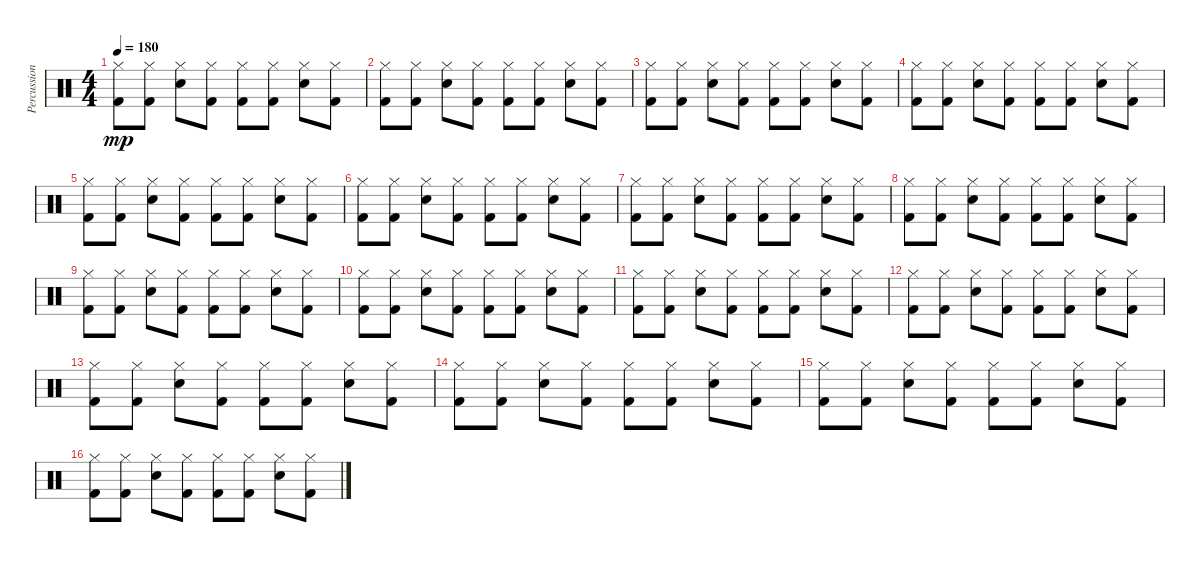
\track ("Percussion" "Percussion") {instrument percussion}
\staff {score}
\articulation defaults
\ts (4 4)
\tempo 180
\clef neutral
\ks c
("Hi-Hat (closed)" "Kick (hit) 2").8{dy mp} ("Hi-Hat (closed)" "Kick (hit) 2").8 ("Hi-Hat (closed)" "Snare (hit) 2").8 ("Hi-Hat (closed)" "Kick (hit) 2").8 ("Hi-Hat (closed)" "Kick (hit) 2").8 ("Hi-Hat (closed)" "Kick (hit) 2").8 ("Hi-Hat (closed)" "Snare (hit) 2").8 ("Hi-Hat (closed)" "Kick (hit) 2").8 |
("Hi-Hat (closed)" "Kick (hit) 2").8 ("Hi-Hat (closed)" "Kick (hit) 2").8 ("Hi-Hat (closed)" "Snare (hit) 2").8 ("Hi-Hat (closed)" "Kick (hit) 2").8 ("Hi-Hat (closed)" "Kick (hit) 2").8 ("Hi-Hat (closed)" "Kick (hit) 2").8 ("Hi-Hat (closed)" "Snare (hit) 2").8 ("Hi-Hat (closed)" "Kick (hit) 2").8 |
("Hi-Hat (closed)" "Kick (hit) 2").8 ("Hi-Hat (closed)" "Kick (hit) 2").8 ("Hi-Hat (closed)" "Snare (hit) 2").8 ("Hi-Hat (closed)" "Kick (hit) 2").8 ("Hi-Hat (closed)" "Kick (hit) 2").8 ("Hi-Hat (closed)" "Kick (hit) 2").8 ("Hi-Hat (closed)" "Snare (hit) 2").8 ("Hi-Hat (closed)" "Kick (hit) 2").8 |
("Hi-Hat (closed)" "Kick (hit) 2").8 ("Hi-Hat (closed)" "Kick (hit) 2").8 ("Hi-Hat (closed)" "Snare (hit) 2").8 ("Hi-Hat (closed)" "Kick (hit) 2").8 ("Hi-Hat (closed)" "Kick (hit) 2").8 ("Hi-Hat (closed)" "Kick (hit) 2").8 ("Hi-Hat (closed)" "Snare (hit) 2").8 ("Hi-Hat (closed)" "Kick (hit) 2").8 |
("Hi-Hat (closed)" "Kick (hit) 2").8 ("Hi-Hat (closed)" "Kick (hit) 2").8 ("Hi-Hat (closed)" "Snare (hit) 2").8 ("Hi-Hat (closed)" "Kick (hit) 2").8 ("Hi-Hat (closed)" "Kick (hit) 2").8 ("Hi-Hat (closed)" "Kick (hit) 2").8 ("Hi-Hat (closed)" "Snare (hit) 2").8 ("Hi-Hat (closed)" "Kick (hit) 2").8 |
("Hi-Hat (closed)" "Kick (hit) 2").8 ("Hi-Hat (closed)" "Kick (hit) 2").8 ("Hi-Hat (closed)" "Snare (hit) 2").8 ("Hi-Hat (closed)" "Kick (hit) 2").8 ("Hi-Hat (closed)" "Kick (hit) 2").8 ("Hi-Hat (closed)" "Kick (hit) 2").8 ("Hi-Hat (closed)" "Snare (hit) 2").8 ("Hi-Hat (closed)" "Kick (hit) 2").8 |
("Hi-Hat (closed)" "Kick (hit) 2").8 ("Hi-Hat (closed)" "Kick (hit) 2").8 ("Hi-Hat (closed)" "Snare (hit) 2").8 ("Hi-Hat (closed)" "Kick (hit) 2").8 ("Hi-Hat (closed)" "Kick (hit) 2").8 ("Hi-Hat (closed)" "Kick (hit) 2").8 ("Hi-Hat (closed)" "Snare (hit) 2").8 ("Hi-Hat (closed)" "Kick (hit) 2").8 |
("Hi-Hat (closed)" "Kick (hit) 2").8 ("Hi-Hat (closed)" "Kick (hit) 2").8 ("Hi-Hat (closed)" "Snare (hit) 2").8 ("Hi-Hat (closed)" "Kick (hit) 2").8 ("Hi-Hat (closed)" "Kick (hit) 2").8 ("Hi-Hat (closed)" "Kick (hit) 2").8 ("Hi-Hat (closed)" "Snare (hit) 2").8 ("Hi-Hat (closed)" "Kick (hit) 2").8 |
("Hi-Hat (closed)" "Kick (hit) 2").8 ("Hi-Hat (closed)" "Kick (hit) 2").8 ("Hi-Hat (closed)" "Snare (hit) 2").8 ("Hi-Hat (closed)" "Kick (hit) 2").8 ("Hi-Hat (closed)" "Kick (hit) 2").8 ("Hi-Hat (closed)" "Kick (hit) 2").8 ("Hi-Hat (closed)" "Snare (hit) 2").8 ("Hi-Hat (closed)" "Kick (hit) 2").8 |
("Hi-Hat (closed)" "Kick (hit) 2").8 ("Hi-Hat (closed)" "Kick (hit) 2").8 ("Hi-Hat (closed)" "Snare (hit) 2").8 ("Hi-Hat (closed)" "Kick (hit) 2").8 ("Hi-Hat (closed)" "Kick (hit) 2").8 ("Hi-Hat (closed)" "Kick (hit) 2").8 ("Hi-Hat (closed)" "Snare (hit) 2").8 ("Hi-Hat (closed)" "Kick (hit) 2").8 |
("Hi-Hat (closed)" "Kick (hit) 2").8 ("Hi-Hat (closed)" "Kick (hit) 2").8 ("Hi-Hat (closed)" "Snare (hit) 2").8 ("Hi-Hat (closed)" "Kick (hit) 2").8 ("Hi-Hat (closed)" "Kick (hit) 2").8 ("Hi-Hat (closed)" "Kick (hit) 2").8 ("Hi-Hat (closed)" "Snare (hit) 2").8 ("Hi-Hat (closed)" "Kick (hit) 2").8 |
("Hi-Hat (closed)" "Kick (hit) 2").8 ("Hi-Hat (closed)" "Kick (hit) 2").8 ("Hi-Hat (closed)" "Snare (hit) 2").8 ("Hi-Hat (closed)" "Kick (hit) 2").8 ("Hi-Hat (closed)" "Kick (hit) 2").8 ("Hi-Hat (closed)" "Kick (hit) 2").8 ("Hi-Hat (closed)" "Snare (hit) 2").8 ("Hi-Hat (closed)" "Kick (hit) 2").8 |
("Hi-Hat (closed)" "Kick (hit) 2").8 ("Hi-Hat (closed)" "Kick (hit) 2").8 ("Hi-Hat (closed)" "Snare (hit) 2").8 ("Hi-Hat (closed)" "Kick (hit) 2").8 ("Hi-Hat (closed)" "Kick (hit) 2").8 ("Hi-Hat (closed)" "Kick (hit) 2").8 ("Hi-Hat (closed)" "Snare (hit) 2").8 ("Hi-Hat (closed)" "Kick (hit) 2").8 |
("Hi-Hat (closed)" "Kick (hit) 2").8 ("Hi-Hat (closed)" "Kick (hit) 2").8 ("Hi-Hat (closed)" "Snare (hit) 2").8 ("Hi-Hat (closed)" "Kick (hit) 2").8 ("Hi-Hat (closed)" "Kick (hit) 2").8 ("Hi-Hat (closed)" "Kick (hit) 2").8 ("Hi-Hat (closed)" "Snare (hit) 2").8 ("Hi-Hat (closed)" "Kick (hit) 2").8 |
("Hi-Hat (closed)" "Kick (hit) 2").8 ("Hi-Hat (closed)" "Kick (hit) 2").8 ("Hi-Hat (closed)" "Snare (hit) 2").8 ("Hi-Hat (closed)" "Kick (hit) 2").8 ("Hi-Hat (closed)" "Kick (hit) 2").8 ("Hi-Hat (closed)" "Kick (hit) 2").8 ("Hi-Hat (closed)" "Snare (hit) 2").8 ("Hi-Hat (closed)" "Kick (hit) 2").8 |
("Hi-Hat (closed)" "Kick (hit) 2").8 ("Hi-Hat (closed)" "Kick (hit) 2").8 ("Hi-Hat (closed)" "Snare (hit) 2").8 ("Hi-Hat (closed)" "Kick (hit) 2").8 ("Hi-Hat (closed)" "Kick (hit) 2").8 ("Hi-Hat (closed)" "Kick (hit) 2").8 ("Hi-Hat (closed)" "Snare (hit) 2").8 ("Hi-Hat (closed)" "Kick (hit) 2").8
